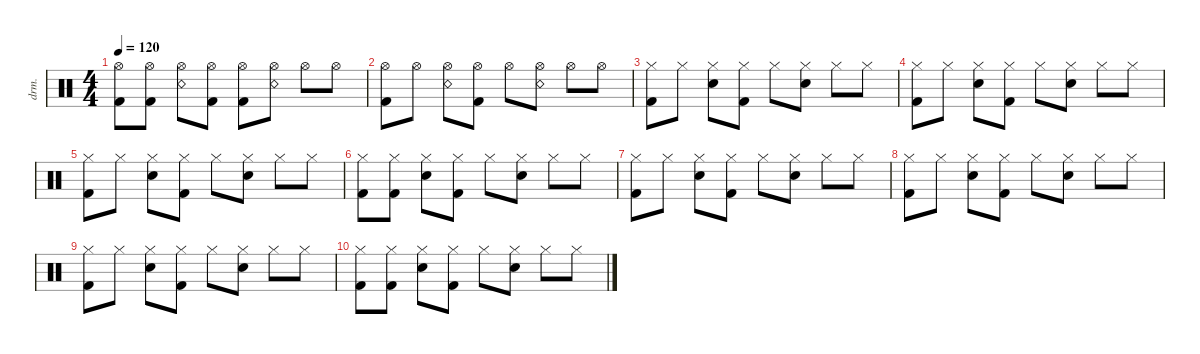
\defaultSystemsLayout 4
\hideDynamics
\bracketExtendMode nobrackets
\otherSystemsTrackNameOrientation horizontal
\track ("Drumkit" "drm.") {instrument percussion}
\staff {score}
\articulation defaults
\ts (4 4)
\tempo 120
\clef neutral
\ks c
("Kick (hit) 2" "Hi-Hat (open)").8{dy mf beam Down} ("Hi-Hat (open)" "Kick (hit) 2").8{beam Down} ("Hi-Hat (open)" "Snare (rim shot)").8{beam Down} ("Hi-Hat (open)" "Kick (hit) 2").8{beam Down} ("Hi-Hat (open)" "Kick (hit) 2").8{beam Down} ("Hi-Hat (open)" "Snare (rim shot)").8{beam Down} "Hi-Hat (open)".8{beam Down} "Hi-Hat (open)".8{beam Down} |
("Kick (hit) 2" "Hi-Hat (open)").8{beam Down} "Hi-Hat (open)".8{beam Down} ("Hi-Hat (open)" "Snare (rim shot)").8{beam Down} ("Hi-Hat (open)" "Kick (hit) 2").8{beam Down} "Hi-Hat (open)".8{beam Down} ("Hi-Hat (open)" "Snare (rim shot)").8{beam Down} "Hi-Hat (open)".8{beam Down} "Hi-Hat (open)".8{beam Down} |
("Hi-Hat (closed)" "Kick (hit) 2").8{beam Down} "Hi-Hat (closed)".8{beam Down} ("Hi-Hat (closed)" "Snare (hit) 2").8{beam Down} ("Hi-Hat (closed)" "Kick (hit) 2").8{beam Down} "Hi-Hat (closed)".8{beam Down} ("Hi-Hat (closed)" "Snare (hit) 2").8{beam Down} "Hi-Hat (closed)".8{beam Down} "Hi-Hat (closed)".8{beam Down} |
("Hi-Hat (closed)" "Kick (hit) 2").8{beam Down} "Hi-Hat (closed)".8{beam Down} ("Hi-Hat (closed)" "Snare (hit) 2").8{beam Down} ("Hi-Hat (closed)" "Kick (hit) 2").8{beam Down} "Hi-Hat (closed)".8{beam Down} ("Hi-Hat (closed)" "Snare (hit) 2").8{beam Down} "Hi-Hat (closed)".8{beam Down} "Hi-Hat (closed)".8{beam Down} |
("Hi-Hat (closed)" "Kick (hit) 2").8{beam Down} "Hi-Hat (closed)".8{beam Down} ("Hi-Hat (closed)" "Snare (hit) 2").8{beam Down} ("Hi-Hat (closed)" "Kick (hit) 2").8{beam Down} "Hi-Hat (closed)".8{beam Down} ("Hi-Hat (closed)" "Snare (hit) 2").8{beam Down} "Hi-Hat (closed)".8{beam Down} "Hi-Hat (closed)".8{beam Down} |
("Hi-Hat (closed)" "Kick (hit) 2").8{beam Down} ("Hi-Hat (closed)" "Kick (hit) 2").8{beam Down} ("Hi-Hat (closed)" "Snare (hit) 2").8{beam Down} ("Hi-Hat (closed)" "Kick (hit) 2").8{beam Down} "Hi-Hat (closed)".8{beam Down} ("Hi-Hat (closed)" "Snare (hit) 2").8{beam Down} "Hi-Hat (closed)".8{beam Down} "Hi-Hat (closed)".8{beam Down} |
("Hi-Hat (closed)" "Kick (hit) 2").8{beam Down} "Hi-Hat (closed)".8{beam Down} ("Hi-Hat (closed)" "Snare (hit) 2").8{beam Down} ("Hi-Hat (closed)" "Kick (hit) 2").8{beam Down} "Hi-Hat (closed)".8{beam Down} ("Hi-Hat (closed)" "Snare (hit) 2").8{beam Down} "Hi-Hat (closed)".8{beam Down} "Hi-Hat (closed)".8{beam Down} |
("Hi-Hat (closed)" "Kick (hit) 2").8{beam Down} "Hi-Hat (closed)".8{beam Down} ("Hi-Hat (closed)" "Snare (hit) 2").8{beam Down} ("Hi-Hat (closed)" "Kick (hit) 2").8{beam Down} "Hi-Hat (closed)".8{beam Down} ("Hi-Hat (closed)" "Snare (hit) 2").8{beam Down} "Hi-Hat (closed)".8{beam Down} "Hi-Hat (closed)".8{beam Down} |
("Hi-Hat (closed)" "Kick (hit) 2").8{beam Down} "Hi-Hat (closed)".8{beam Down} ("Hi-Hat (closed)" "Snare (hit) 2").8{beam Down} ("Hi-Hat (closed)" "Kick (hit) 2").8{beam Down} "Hi-Hat (closed)".8{beam Down} ("Hi-Hat (closed)" "Snare (hit) 2").8{beam Down} "Hi-Hat (closed)".8{beam Down} "Hi-Hat (closed)".8{beam Down} |
("Hi-Hat (closed)" "Kick (hit) 2").8{beam Down} ("Hi-Hat (closed)" "Kick (hit) 2").8{beam Down} ("Hi-Hat (closed)" "Snare (hit) 2").8{beam Down} ("Hi-Hat (closed)" "Kick (hit) 2").8{beam Down} "Hi-Hat (closed)".8{beam Down} ("Hi-Hat (closed)" "Snare (hit) 2").8{beam Down} "Hi-Hat (closed)".8{beam Down} "Hi-Hat (closed)".8{beam Down}
